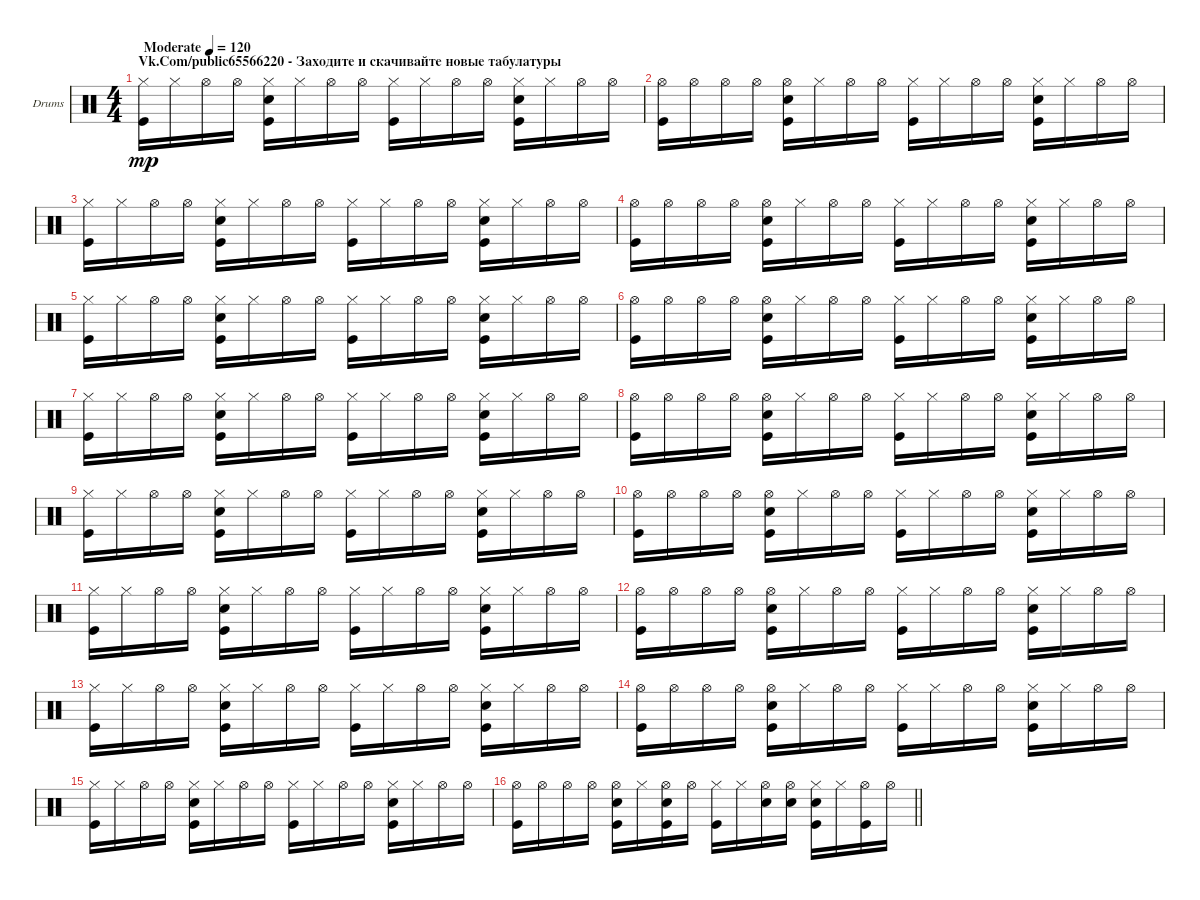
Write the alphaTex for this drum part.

\bracketExtendMode groupsimilarinstruments
\firstSystemTrackNameOrientation horizontal
\otherSystemsTrackNameOrientation horizontal
\track ("Ударные" "Drums") {instrument percussion}
\staff {score}
\articulation defaults
\ts (4 4)
\beaming (8 2 2 2 2)
\section ("" "Vk.Com/public65566220 - Заходите и скачивайте новые табулатуры")
\tempo (120 "Moderate")
\clef neutral
\ks c
("Hi-Hat (closed)" "Kick (hit)").16{dy mp} "Hi-Hat (closed)".16 "Hi-Hat (open)".16 "Hi-Hat (open)".16 ("Hi-Hat (closed)" "Snare (hit) 2" "Kick (hit)").16 "Hi-Hat (closed)".16 "Hi-Hat (open)".16 "Hi-Hat (open)".16 ("Hi-Hat (closed)" "Kick (hit)").16 "Hi-Hat (closed)".16 "Hi-Hat (open)".16 "Hi-Hat (open)".16 ("Hi-Hat (closed)" "Snare (hit) 2" "Kick (hit)").16 "Hi-Hat (closed)".16 "Hi-Hat (open)".16 "Hi-Hat (open)".16 |
("Hi-Hat (open)" "Kick (hit)").16 "Hi-Hat (open)".16 "Hi-Hat (open)".16 "Hi-Hat (open)".16 ("Hi-Hat (open)" "Snare (hit) 2" "Kick (hit)").16 "Hi-Hat (closed)".16 "Hi-Hat (open)".16 "Hi-Hat (open)".16 ("Hi-Hat (closed)" "Kick (hit)").16 "Hi-Hat (closed)".16 "Hi-Hat (open)".16 "Hi-Hat (open)".16 ("Hi-Hat (closed)" "Snare (hit) 2" "Kick (hit)").16 "Hi-Hat (closed)".16 "Hi-Hat (open)".16 "Hi-Hat (open)".16 |
("Hi-Hat (closed)" "Kick (hit)").16 "Hi-Hat (closed)".16 "Hi-Hat (open)".16 "Hi-Hat (open)".16 ("Hi-Hat (closed)" "Snare (hit) 2" "Kick (hit)").16 "Hi-Hat (closed)".16 "Hi-Hat (open)".16 "Hi-Hat (open)".16 ("Hi-Hat (closed)" "Kick (hit)").16 "Hi-Hat (closed)".16 "Hi-Hat (open)".16 "Hi-Hat (open)".16 ("Hi-Hat (closed)" "Snare (hit) 2" "Kick (hit)").16 "Hi-Hat (closed)".16 "Hi-Hat (open)".16 "Hi-Hat (open)".16 |
("Hi-Hat (open)" "Kick (hit)").16 "Hi-Hat (open)".16 "Hi-Hat (open)".16 "Hi-Hat (open)".16 ("Hi-Hat (open)" "Snare (hit) 2" "Kick (hit)").16 "Hi-Hat (closed)".16 "Hi-Hat (open)".16 "Hi-Hat (open)".16 ("Hi-Hat (closed)" "Kick (hit)").16 "Hi-Hat (closed)".16 "Hi-Hat (open)".16 "Hi-Hat (open)".16 ("Hi-Hat (closed)" "Snare (hit) 2" "Kick (hit)").16 "Hi-Hat (closed)".16 "Hi-Hat (open)".16 "Hi-Hat (open)".16 |
("Hi-Hat (closed)" "Kick (hit)").16 "Hi-Hat (closed)".16 "Hi-Hat (open)".16 "Hi-Hat (open)".16 ("Hi-Hat (closed)" "Snare (hit) 2" "Kick (hit)").16 "Hi-Hat (closed)".16 "Hi-Hat (open)".16 "Hi-Hat (open)".16 ("Hi-Hat (closed)" "Kick (hit)").16 "Hi-Hat (closed)".16 "Hi-Hat (open)".16 "Hi-Hat (open)".16 ("Hi-Hat (closed)" "Snare (hit) 2" "Kick (hit)").16 "Hi-Hat (closed)".16 "Hi-Hat (open)".16 "Hi-Hat (open)".16 |
("Hi-Hat (open)" "Kick (hit)").16 "Hi-Hat (open)".16 "Hi-Hat (open)".16 "Hi-Hat (open)".16 ("Hi-Hat (open)" "Snare (hit) 2" "Kick (hit)").16 "Hi-Hat (closed)".16 "Hi-Hat (open)".16 "Hi-Hat (open)".16 ("Hi-Hat (closed)" "Kick (hit)").16 "Hi-Hat (closed)".16 "Hi-Hat (open)".16 "Hi-Hat (open)".16 ("Hi-Hat (closed)" "Snare (hit) 2" "Kick (hit)").16 "Hi-Hat (closed)".16 "Hi-Hat (open)".16 "Hi-Hat (open)".16 |
("Hi-Hat (closed)" "Kick (hit)").16 "Hi-Hat (closed)".16 "Hi-Hat (open)".16 "Hi-Hat (open)".16 ("Hi-Hat (closed)" "Snare (hit) 2" "Kick (hit)").16 "Hi-Hat (closed)".16 "Hi-Hat (open)".16 "Hi-Hat (open)".16 ("Hi-Hat (closed)" "Kick (hit)").16 "Hi-Hat (closed)".16 "Hi-Hat (open)".16 "Hi-Hat (open)".16 ("Hi-Hat (closed)" "Snare (hit) 2" "Kick (hit)").16 "Hi-Hat (closed)".16 "Hi-Hat (open)".16 "Hi-Hat (open)".16 |
("Hi-Hat (open)" "Kick (hit)").16 "Hi-Hat (open)".16 "Hi-Hat (open)".16 "Hi-Hat (open)".16 ("Hi-Hat (open)" "Snare (hit) 2" "Kick (hit)").16 "Hi-Hat (closed)".16 "Hi-Hat (open)".16 "Hi-Hat (open)".16 ("Hi-Hat (closed)" "Kick (hit)").16 "Hi-Hat (closed)".16 "Hi-Hat (open)".16 "Hi-Hat (open)".16 ("Hi-Hat (closed)" "Snare (hit) 2" "Kick (hit)").16 "Hi-Hat (closed)".16 "Hi-Hat (open)".16 "Hi-Hat (open)".16 |
("Hi-Hat (closed)" "Kick (hit)").16 "Hi-Hat (closed)".16 "Hi-Hat (open)".16 "Hi-Hat (open)".16 ("Hi-Hat (closed)" "Snare (hit) 2" "Kick (hit)").16 "Hi-Hat (closed)".16 "Hi-Hat (open)".16 "Hi-Hat (open)".16 ("Hi-Hat (closed)" "Kick (hit)").16 "Hi-Hat (closed)".16 "Hi-Hat (open)".16 "Hi-Hat (open)".16 ("Hi-Hat (closed)" "Snare (hit) 2" "Kick (hit)").16 "Hi-Hat (closed)".16 "Hi-Hat (open)".16 "Hi-Hat (open)".16 |
("Hi-Hat (open)" "Kick (hit)").16 "Hi-Hat (open)".16 "Hi-Hat (open)".16 "Hi-Hat (open)".16 ("Hi-Hat (open)" "Snare (hit) 2" "Kick (hit)").16 "Hi-Hat (closed)".16 "Hi-Hat (open)".16 "Hi-Hat (open)".16 ("Hi-Hat (closed)" "Kick (hit)").16 "Hi-Hat (closed)".16 "Hi-Hat (open)".16 "Hi-Hat (open)".16 ("Hi-Hat (closed)" "Snare (hit) 2" "Kick (hit)").16 "Hi-Hat (closed)".16 "Hi-Hat (open)".16 "Hi-Hat (open)".16 |
("Hi-Hat (closed)" "Kick (hit)").16 "Hi-Hat (closed)".16 "Hi-Hat (open)".16 "Hi-Hat (open)".16 ("Hi-Hat (closed)" "Snare (hit) 2" "Kick (hit)").16 "Hi-Hat (closed)".16 "Hi-Hat (open)".16 "Hi-Hat (open)".16 ("Hi-Hat (closed)" "Kick (hit)").16 "Hi-Hat (closed)".16 "Hi-Hat (open)".16 "Hi-Hat (open)".16 ("Hi-Hat (closed)" "Snare (hit) 2" "Kick (hit)").16 "Hi-Hat (closed)".16 "Hi-Hat (open)".16 "Hi-Hat (open)".16 |
("Hi-Hat (open)" "Kick (hit)").16 "Hi-Hat (open)".16 "Hi-Hat (open)".16 "Hi-Hat (open)".16 ("Hi-Hat (open)" "Snare (hit) 2" "Kick (hit)").16 "Hi-Hat (closed)".16 "Hi-Hat (open)".16 "Hi-Hat (open)".16 ("Hi-Hat (closed)" "Kick (hit)").16 "Hi-Hat (closed)".16 "Hi-Hat (open)".16 "Hi-Hat (open)".16 ("Hi-Hat (closed)" "Snare (hit) 2" "Kick (hit)").16 "Hi-Hat (closed)".16 "Hi-Hat (open)".16 "Hi-Hat (open)".16 |
("Hi-Hat (closed)" "Kick (hit)").16 "Hi-Hat (closed)".16 "Hi-Hat (open)".16 "Hi-Hat (open)".16 ("Hi-Hat (closed)" "Snare (hit) 2" "Kick (hit)").16 "Hi-Hat (closed)".16 "Hi-Hat (open)".16 "Hi-Hat (open)".16 ("Hi-Hat (closed)" "Kick (hit)").16 "Hi-Hat (closed)".16 "Hi-Hat (open)".16 "Hi-Hat (open)".16 ("Hi-Hat (closed)" "Snare (hit) 2" "Kick (hit)").16 "Hi-Hat (closed)".16 "Hi-Hat (open)".16 "Hi-Hat (open)".16 |
("Hi-Hat (open)" "Kick (hit)").16 "Hi-Hat (open)".16 "Hi-Hat (open)".16 "Hi-Hat (open)".16 ("Hi-Hat (open)" "Snare (hit) 2" "Kick (hit)").16 "Hi-Hat (closed)".16 "Hi-Hat (open)".16 "Hi-Hat (open)".16 ("Hi-Hat (closed)" "Kick (hit)").16 "Hi-Hat (closed)".16 "Hi-Hat (open)".16 "Hi-Hat (open)".16 ("Hi-Hat (closed)" "Snare (hit) 2" "Kick (hit)").16 "Hi-Hat (closed)".16 "Hi-Hat (open)".16 "Hi-Hat (open)".16 |
("Hi-Hat (closed)" "Kick (hit)").16 "Hi-Hat (closed)".16 "Hi-Hat (open)".16 "Hi-Hat (open)".16 ("Hi-Hat (closed)" "Snare (hit) 2" "Kick (hit)").16 "Hi-Hat (closed)".16 "Hi-Hat (open)".16 "Hi-Hat (open)".16 ("Hi-Hat (closed)" "Kick (hit)").16 "Hi-Hat (closed)".16 "Hi-Hat (open)".16 "Hi-Hat (open)".16 ("Hi-Hat (closed)" "Snare (hit) 2" "Kick (hit)").16 "Hi-Hat (closed)".16 "Hi-Hat (open)".16 "Hi-Hat (open)".16 |
\barLineRight lightlight
("Hi-Hat (open)" "Kick (hit)").16 "Hi-Hat (open)".16 "Hi-Hat (open)".16 "Hi-Hat (open)".16 ("Hi-Hat (open)" "Snare (hit) 2" "Kick (hit)").16 "Hi-Hat (closed)".16 ("Hi-Hat (open)" "Snare (hit) 2" "Kick (hit)").16 "Hi-Hat (open)".16 ("Hi-Hat (closed)" "Kick (hit)").16 "Hi-Hat (closed)".16 ("Hi-Hat (open)" "Snare (hit) 2").16 ("Hi-Hat (open)" "Snare (hit) 2").16 ("Hi-Hat (closed)" "Snare (hit) 2" "Kick (hit)").16 "Hi-Hat (closed)".16 ("Hi-Hat (open)" "Kick (hit)").16 "Hi-Hat (open)".16
